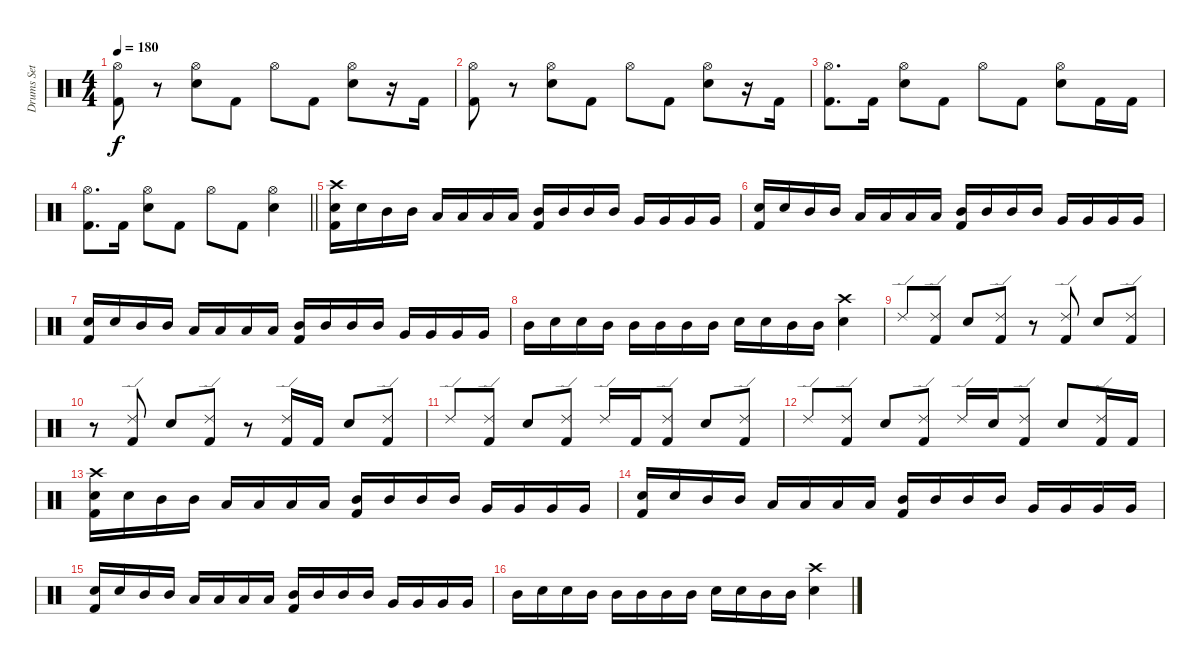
\track ("Drums Set" "Drums Set") {instrument percussion}
\staff {score}
\articulation defaults
\ts (4 4)
\tempo 180
\clef neutral
\ks c
("Hi-Hat (open)" "Kick (hit) 2").8{dy f} r.8 ("Hi-Hat (open)" "Snare (hit) 2").8 "Kick (hit) 2".8 "Hi-Hat (open)".8 "Kick (hit) 2".8 ("Hi-Hat (open)" "Snare (hit) 2").8 r.16 "Kick (hit) 2".16 |
("Hi-Hat (open)" "Kick (hit) 2").8 r.8 ("Hi-Hat (open)" "Snare (hit) 2").8 "Kick (hit) 2".8 "Hi-Hat (open)".8 "Kick (hit) 2".8 ("Hi-Hat (open)" "Snare (hit) 2").8 r.16 "Kick (hit) 2".16 |
("Hi-Hat (open)" "Kick (hit) 2").8{d} "Kick (hit) 2".16 ("Hi-Hat (open)" "Snare (hit) 2").8 "Kick (hit) 2".8 "Hi-Hat (open)".8 "Kick (hit) 2".8 ("Hi-Hat (open)" "Snare (hit) 2").8 "Kick (hit) 2".16 "Kick (hit) 2".16 |
\barLineRight lightlight
("Hi-Hat (open)" "Kick (hit) 2").8{d} "Kick (hit) 2".16 ("Hi-Hat (open)" "Snare (hit) 2").8 "Kick (hit) 2".8 "Hi-Hat (open)".8 "Kick (hit) 2".8 ("Hi-Hat (open)" "Snare (hit) 2").4 |
("Crash high (hit)" "Snare (hit) 2" "Kick (hit) 2").16 "Snare (hit) 2".16 "Mid Tom (hit)".16 "Mid Tom (hit)".16 "Low Tom (hit)".16 "Low Tom (hit)".16 "Low Tom (hit)".16 "Low Tom (hit)".16 ("Mid Tom (hit)" "Kick (hit) 2").16 "Mid Tom (hit)".16 "Mid Tom (hit)".16 "Mid Tom (hit)".16 "Very Low Tom (hit)".16 "Very Low Tom (hit)".16 "Very Low Tom (hit)".16 "Very Low Tom (hit)".16 |
("Snare (hit) 2" "Kick (hit) 2").16 "Snare (hit) 2".16 "Mid Tom (hit)".16 "Mid Tom (hit)".16 "Low Tom (hit)".16 "Low Tom (hit)".16 "Low Tom (hit)".16 "Low Tom (hit)".16 ("Mid Tom (hit)" "Kick (hit) 2").16 "Mid Tom (hit)".16 "Mid Tom (hit)".16 "Mid Tom (hit)".16 "Very Low Tom (hit)".16 "Very Low Tom (hit)".16 "Very Low Tom (hit)".16 "Very Low Tom (hit)".16 |
("Snare (hit) 2" "Kick (hit) 2").16 "Snare (hit) 2".16 "Mid Tom (hit)".16 "Mid Tom (hit)".16 "Low Tom (hit)".16 "Low Tom (hit)".16 "Low Tom (hit)".16 "Low Tom (hit)".16 ("Mid Tom (hit)" "Kick (hit) 2").16 "Mid Tom (hit)".16 "Mid Tom (hit)".16 "Mid Tom (hit)".16 "Very Low Tom (hit)".16 "Very Low Tom (hit)".16 "Very Low Tom (hit)".16 "Very Low Tom (hit)".16 |
"Mid Tom (hit)".16 "Snare (hit) 2".16 "Snare (hit) 2".16 "Mid Tom (hit)".16 "Mid Tom (hit)".16 "Mid Tom (hit)".16 "Mid Tom (hit)".16 "Mid Tom (hit)".16 "Snare (hit) 2".16 "Snare (hit) 2".16 "Mid Tom (hit)".16 "Mid Tom (hit)".16 ("Crash high (hit)" "Snare (hit) 2").4 |
"Ride (edge) 2".8 ("Ride (edge) 2" "Kick (hit) 2").8 "Snare (hit) 2".8 ("Ride (edge) 2" "Kick (hit) 2").8 r.8 ("Ride (edge) 2" "Kick (hit) 2").8 "Snare (hit) 2".8 ("Ride (edge) 2" "Kick (hit) 2").8 |
r.8 ("Ride (edge) 2" "Kick (hit) 2").8 "Snare (hit) 2".8 ("Ride (edge) 2" "Kick (hit) 2").8 r.8 ("Ride (edge) 2" "Kick (hit) 2").16 "Kick (hit) 2".16 "Snare (hit) 2".8 ("Ride (edge) 2" "Kick (hit) 2").8 |
"Ride (edge) 2".8 ("Ride (edge) 2" "Kick (hit) 2").8 "Snare (hit) 2".8 ("Ride (edge) 2" "Kick (hit) 2").8 "Ride (edge) 2".16 "Kick (hit) 2".16 ("Ride (edge) 2" "Kick (hit) 2").8 "Snare (hit) 2".8 ("Ride (edge) 2" "Kick (hit) 2").8 |
"Ride (edge) 2".8 ("Ride (edge) 2" "Kick (hit) 2").8 "Snare (hit) 2".8 ("Ride (edge) 2" "Kick (hit) 2").8 "Ride (edge) 2".16 "Snare (hit) 2".16 ("Ride (edge) 2" "Kick (hit) 2").8 "Snare (hit) 2".8 ("Ride (edge) 2" "Kick (hit) 2").16 "Kick (hit) 2".16 |
("Crash high (hit)" "Snare (hit) 2" "Kick (hit) 2").16 "Snare (hit) 2".16 "Mid Tom (hit)".16 "Mid Tom (hit)".16 "Low Tom (hit)".16 "Low Tom (hit)".16 "Low Tom (hit)".16 "Low Tom (hit)".16 ("Mid Tom (hit)" "Kick (hit) 2").16 "Mid Tom (hit)".16 "Mid Tom (hit)".16 "Mid Tom (hit)".16 "Very Low Tom (hit)".16 "Very Low Tom (hit)".16 "Very Low Tom (hit)".16 "Very Low Tom (hit)".16 |
("Snare (hit) 2" "Kick (hit) 2").16 "Snare (hit) 2".16 "Mid Tom (hit)".16 "Mid Tom (hit)".16 "Low Tom (hit)".16 "Low Tom (hit)".16 "Low Tom (hit)".16 "Low Tom (hit)".16 ("Mid Tom (hit)" "Kick (hit) 2").16 "Mid Tom (hit)".16 "Mid Tom (hit)".16 "Mid Tom (hit)".16 "Very Low Tom (hit)".16 "Very Low Tom (hit)".16 "Very Low Tom (hit)".16 "Very Low Tom (hit)".16 |
("Snare (hit) 2" "Kick (hit) 2").16 "Snare (hit) 2".16 "Mid Tom (hit)".16 "Mid Tom (hit)".16 "Low Tom (hit)".16 "Low Tom (hit)".16 "Low Tom (hit)".16 "Low Tom (hit)".16 ("Mid Tom (hit)" "Kick (hit) 2").16 "Mid Tom (hit)".16 "Mid Tom (hit)".16 "Mid Tom (hit)".16 "Very Low Tom (hit)".16 "Very Low Tom (hit)".16 "Very Low Tom (hit)".16 "Very Low Tom (hit)".16 |
"Mid Tom (hit)".16 "Snare (hit) 2".16 "Snare (hit) 2".16 "Mid Tom (hit)".16 "Mid Tom (hit)".16 "Mid Tom (hit)".16 "Mid Tom (hit)".16 "Mid Tom (hit)".16 "Snare (hit) 2".16 "Snare (hit) 2".16 "Mid Tom (hit)".16 "Mid Tom (hit)".16 ("Crash high (hit)" "Snare (hit) 2").4
